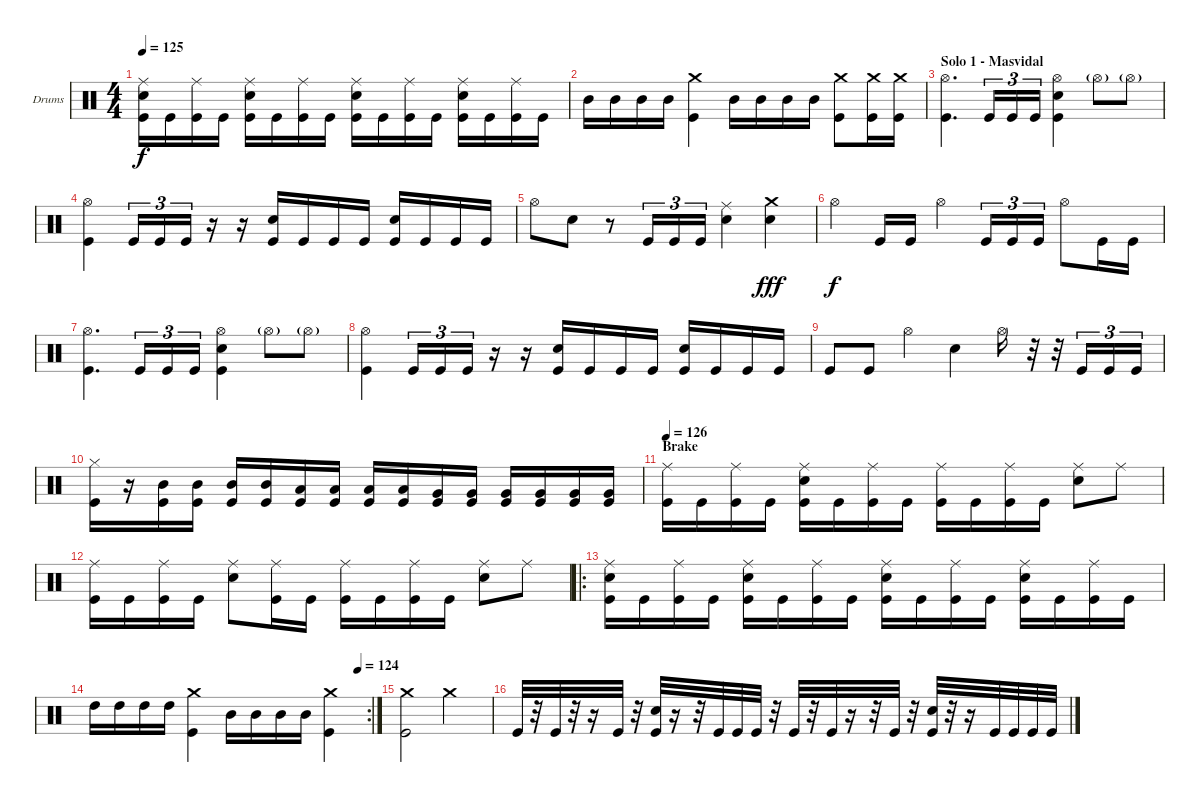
\bracketExtendMode groupsimilarinstruments
\firstSystemTrackNameOrientation horizontal
\otherSystemsTrackNameOrientation horizontal
\track ("Drumkit" "Drums") {instrument percussion}
\staff {score}
\articulation defaults
\ts (4 4)
\tempo 125
\clef neutral
\ks c
("Ride (middle)" "Snare (hit) 2" "Kick (hit)").16{dy f} "Kick (hit)".16 ("Ride (middle)" "Kick (hit)").16 "Kick (hit)".16 ("Ride (middle)" "Snare (hit) 2" "Kick (hit)").16 "Kick (hit)".16 ("Ride (middle)" "Kick (hit)").16 "Kick (hit)".16 ("Ride (middle)" "Snare (hit) 2" "Kick (hit)").16 "Kick (hit)".16 ("Ride (middle)" "Kick (hit)").16 "Kick (hit)".16 ("Ride (middle)" "Snare (hit) 2" "Kick (hit)").16 "Kick (hit)".16 ("Ride (middle)" "Kick (hit)").16 "Kick (hit)".16 |
"Mid Tom (hit)".16 "Mid Tom (hit)".16 "Mid Tom (hit)".16 "Mid Tom (hit)".16 ("Crash medium (hit)" "Kick (hit)").4 "Mid Tom (hit)".16 "Mid Tom (hit)".16 "Mid Tom (hit)".16 "Mid Tom (hit)".16 ("Crash medium (hit)" "Kick (hit)").8 ("Crash medium (hit)" "Kick (hit)").16 ("Crash medium (hit)" "Kick (hit)").16 |
\section ("" "Solo 1 - Masvidal")
("Hi-Hat (open)" "Kick (hit)").4{d} "Kick (hit)".16{tu (3 2)} "Kick (hit)".16{tu (3 2)} "Kick (hit)".16{tu (3 2)} ("Kick (hit)" "Snare (hit) 2" "Hi-Hat (open)").4 "Hi-Hat (open)"{g}.8 "Hi-Hat (open)"{g}.8 |
("Hi-Hat (open)" "Kick (hit)").4 "Kick (hit)".16{tu (3 2)} "Kick (hit)".16{tu (3 2)} "Kick (hit)".16{tu (3 2)} r.16 r.16 ("Snare (hit) 2" "Kick (hit)").16 "Kick (hit)".16 "Kick (hit)".16 "Kick (hit)".16 ("Snare (hit) 2" "Kick (hit)").16 "Kick (hit)".16 "Kick (hit)".16 "Kick (hit)".16 |
"Hi-Hat (open)".8 "Snare (hit) 2".8 r.8 "Kick (hit)".16{tu (3 2)} "Kick (hit)".16{tu (3 2)} "Kick (hit)".16{tu (3 2)} ("Ride (middle)" "Snare (hit) 2").4 ("Crash medium (hit)" "Snare (hit) 2").4{dy fff} |
"Hi-Hat (open)".4{dy f} "Kick (hit)".16 "Kick (hit)".16 "Hi-Hat (open)".4 "Kick (hit)".16{tu (3 2)} "Kick (hit)".16{tu (3 2)} "Kick (hit)".16{tu (3 2)} "Hi-Hat (open)".8 "Kick (hit)".16 "Kick (hit)".16 |
("Hi-Hat (open)" "Kick (hit)").4{d} "Kick (hit)".16{tu (3 2)} "Kick (hit)".16{tu (3 2)} "Kick (hit)".16{tu (3 2)} ("Kick (hit)" "Snare (hit) 2" "Hi-Hat (open)").4 "Hi-Hat (open)"{g}.8 "Hi-Hat (open)"{g}.8 |
("Hi-Hat (open)" "Kick (hit)").4 "Kick (hit)".16{tu (3 2)} "Kick (hit)".16{tu (3 2)} "Kick (hit)".16{tu (3 2)} r.16 r.16 ("Snare (hit) 2" "Kick (hit)").16 "Kick (hit)".16 "Kick (hit)".16 "Kick (hit)".16 ("Snare (hit) 2" "Kick (hit)").16 "Kick (hit)".16 "Kick (hit)".16 "Kick (hit)".16 |
"Kick (hit)".8 "Kick (hit)".8 "Hi-Hat (open)".4 "Snare (hit) 2".4 "Hi-Hat (open)".16 r.32 r.32 "Kick (hit)".16{tu (3 2)} "Kick (hit)".16{tu (3 2)} "Kick (hit)".16{tu (3 2)} |
("Hi-Hat (closed)" "Kick (hit)").16 r.16 ("Kick (hit)" "Mid Tom (hit)").16 ("Kick (hit)" "Mid Tom (hit)").16 ("Kick (hit)" "Mid Tom (hit)").16 ("Kick (hit)" "Mid Tom (hit)").16 ("Kick (hit)" "Low Tom (hit)").16 ("Kick (hit)" "Low Tom (hit)").16 ("Kick (hit)" "Low Tom (hit)").16 ("Kick (hit)" "Low Tom (hit)").16 ("Kick (hit)" "Very Low Tom (hit)").16 ("Kick (hit)" "Very Low Tom (hit)").16 ("Kick (hit)" "Very Low Tom (hit)").16 ("Kick (hit)" "Very Low Tom (hit)").16 ("Kick (hit)" "Very Low Tom (hit)").16 ("Kick (hit)" "Very Low Tom (hit)").16 |
\section ("" "Brake")
\tempo 126
("Ride (middle)" "Kick (hit)").16 "Kick (hit)".16 ("Ride (middle)" "Kick (hit)").16 "Kick (hit)".16 ("Ride (middle)" "Snare (hit) 2" "Kick (hit)").16 "Kick (hit)".16 ("Ride (middle)" "Kick (hit)").16 "Kick (hit)".16 ("Ride (middle)" "Kick (hit)").16 "Kick (hit)".16 ("Ride (middle)" "Kick (hit)").16 "Kick (hit)".16 ("Ride (middle)" "Snare (hit) 2").8 "Ride (middle)".8 |
("Ride (middle)" "Kick (hit)").16 "Kick (hit)".16 ("Ride (middle)" "Kick (hit)").16 "Kick (hit)".16 ("Ride (middle)" "Snare (hit) 2").8 ("Ride (middle)" "Kick (hit)").16 "Kick (hit)".16 ("Ride (middle)" "Kick (hit)").16 "Kick (hit)".16 ("Ride (middle)" "Kick (hit)").16 "Kick (hit)".16 ("Ride (middle)" "Snare (hit) 2").8 "Ride (middle)".8 |
\ro
("Ride (middle)" "Snare (hit) 2" "Kick (hit)").16 "Kick (hit)".16 ("Ride (middle)" "Kick (hit)").16 "Kick (hit)".16 ("Ride (middle)" "Snare (hit) 2" "Kick (hit)").16 "Kick (hit)".16 ("Ride (middle)" "Kick (hit)").16 "Kick (hit)".16 ("Ride (middle)" "Snare (hit) 2" "Kick (hit)").16 "Kick (hit)".16 ("Ride (middle)" "Kick (hit)").16 "Kick (hit)".16 ("Ride (middle)" "Snare (hit) 2" "Kick (hit)").16 "Kick (hit)".16 ("Ride (middle)" "Kick (hit)").16 "Kick (hit)".16 |
\rc 2
\tempo (124 0.96875)
"High Tom (hit)".16 "High Tom (hit)".16 "High Tom (hit)".16 "High Tom (hit)".16 ("Crash medium (hit)" "Kick (hit)").4 "Mid Tom (hit)".16 "Mid Tom (hit)".16 "Mid Tom (hit)".16 "Mid Tom (hit)".16 ("Crash medium (hit)" "Kick (hit)").4 |
("Crash medium (hit)" "Kick (hit)").2 "Crash medium (hit)".2 |
"Kick (hit)".32 r.32 "Kick (hit)".32 r.32 r.16 "Kick (hit)".32 r.32 ("Snare (hit) 2" "Kick (hit)").32 r.16 r.32 "Kick (hit)".32 "Kick (hit)".32 "Kick (hit)".32 r.32 "Kick (hit)".32 r.32 "Kick (hit)".32 r.16 r.32 "Kick (hit)".32 r.32 ("Snare (hit) 2" "Kick (hit)").32 r.32 r.16 "Kick (hit)".32 "Kick (hit)".32 "Kick (hit)".32 "Kick (hit)".32
